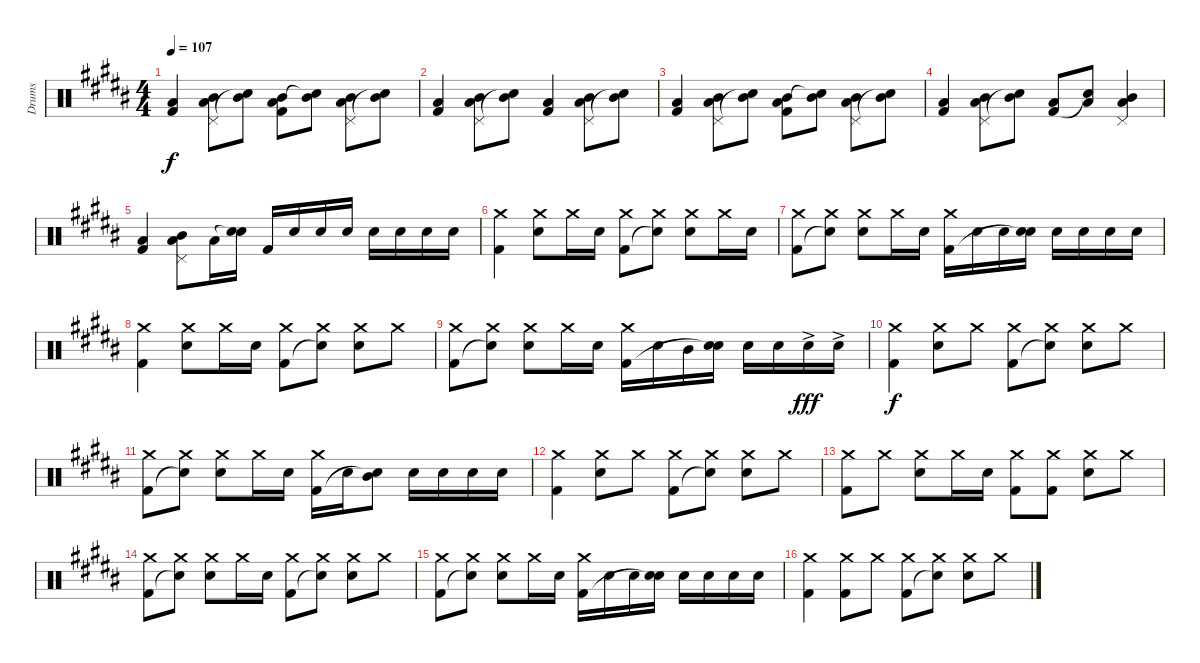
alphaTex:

\track ("Drums" "Drums") {instrument percussion}
\staff {score}
\articulation defaults
\ts (4 4)
\tempo 107
\clef neutral
\ks b
("Low Tom (hit)" "Kick (hit) 2").4{dy f} ("Pedal Hi-Hat (hit)" "Mid Tom (hit)" "Low Tom (hit)").8 ("Snare (hit)"{t} "Mid Tom (hit)").8 ("Mid Tom (hit)" "Low Tom (hit)" "Kick (hit) 2").8 ("Mid Tom (hit)" "Snare (hit)"{t}).8 ("Pedal Hi-Hat (hit)" "Mid Tom (hit)" "Low Tom (hit)").8 ("Snare (hit)"{t} "Mid Tom (hit)").8 |
("Low Tom (hit)" "Kick (hit) 2").4 ("Pedal Hi-Hat (hit)" "Mid Tom (hit)" "Low Tom (hit)").8 ("Snare (hit)"{t} "Mid Tom (hit)").8 ("Low Tom (hit)" "Kick (hit) 2").4 ("Pedal Hi-Hat (hit)" "Mid Tom (hit)" "Low Tom (hit)").8 ("Snare (hit)"{t} "Mid Tom (hit)").8 |
("Low Tom (hit)" "Kick (hit) 2").4 ("Pedal Hi-Hat (hit)" "Mid Tom (hit)" "Low Tom (hit)").8 ("Snare (hit)"{t} "Mid Tom (hit)").8 ("Mid Tom (hit)" "Low Tom (hit)" "Kick (hit) 2").8 ("Mid Tom (hit)" "Snare (hit)"{t}).8 ("Pedal Hi-Hat (hit)" "Mid Tom (hit)" "Low Tom (hit)").8 ("Snare (hit)"{t} "Mid Tom (hit)").8 |
("Low Tom (hit)" "Kick (hit) 2").4 ("Pedal Hi-Hat (hit)" "Mid Tom (hit)" "Low Tom (hit)").8 ("Snare (hit)"{t} "Mid Tom (hit)").8 ("Low Tom (hit)" "Kick (hit) 2").8 ("Low Tom (hit)" "Snare (hit)"{t}).8 ("Pedal Hi-Hat (hit)" "Mid Tom (hit)" "Low Tom (hit)").4 |
("Low Tom (hit)" "Kick (hit) 2").4 ("Pedal Hi-Hat (hit)" "Mid Tom (hit)" "Low Tom (hit)").8 "Low Tom (hit)".16 ("Snare (hit)"{t} "Snare (hit) 2").16 "Kick (hit) 2".16 "Snare (hit) 2".16 "Snare (hit) 2".16 "Snare (hit) 2".16 "Electric Snare (hit)".16 "Snare (hit) 2".16 "Snare (hit) 2".16 "Snare (hit) 2".16 |
("Crash medium (hit)" "Kick (hit) 2").4 ("Crash medium (hit)" "Snare (hit) 2").8 "Crash medium (hit)".16 "Snare (hit) 2".16 ("Crash medium (hit)" "Kick (hit) 2").8 ("Crash medium (hit)" "Snare (hit)"{t}).8 ("Crash medium (hit)" "Snare (hit) 2").8 "Crash medium (hit)".16 "Snare (hit) 2".16 |
("Crash medium (hit)" "Kick (hit) 2").8 ("Crash medium (hit)" "Snare (hit)"{t}).8 ("Crash medium (hit)" "Snare (hit) 2").8 "Crash medium (hit)".16 "Snare (hit) 2".16 ("Crash medium (hit)" "Kick (hit) 2").16 "Snare (hit) 2".16 "Electric Snare (hit)".16 ("Snare (hit) 2" "Snare (hit)"{t}).16 "Electric Snare (hit)".16 "Snare (hit) 2".16 "Snare (hit) 2".16 "Snare (hit) 2".16 |
("Crash medium (hit)" "Kick (hit) 2").4 ("Crash medium (hit)" "Snare (hit) 2").8 "Crash medium (hit)".16 "Snare (hit) 2".16 ("Crash medium (hit)" "Kick (hit) 2").8 ("Crash medium (hit)" "Snare (hit)"{t}).8 ("Crash medium (hit)" "Snare (hit) 2").8 "Crash medium (hit)".8 |
("Crash medium (hit)" "Kick (hit) 2").8 ("Crash medium (hit)" "Snare (hit)"{t}).8 ("Crash medium (hit)" "Snare (hit) 2").8 "Crash medium (hit)".16 "Snare (hit) 2".16 ("Crash medium (hit)" "Kick (hit) 2").16 "Snare (hit) 2".16 "Mid Tom (hit)".16 ("Snare (hit) 2" "Snare (hit)"{t}).16 "Snare (hit) 2".16 "Snare (hit) 2".16 "Snare (hit) 2"{ac}.16{dy fff} "Snare (hit) 2"{ac}.16 |
("Crash medium (hit)" "Kick (hit) 2").4{dy f} ("Crash medium (hit)" "Snare (hit) 2").8 "Crash medium (hit)".8 ("Crash medium (hit)" "Kick (hit) 2").8 ("Crash medium (hit)" "Snare (hit)"{t}).8 ("Crash medium (hit)" "Snare (hit) 2").8 "Crash medium (hit)".8 |
("Crash medium (hit)" "Kick (hit) 2").8 ("Crash medium (hit)" "Snare (hit)"{t}).8 ("Crash medium (hit)" "Snare (hit) 2").8 "Crash medium (hit)".16 "Snare (hit) 2".16 ("Crash medium (hit)" "Kick (hit) 2").16 "Snare (hit) 2".16 ("Mid Tom (hit)" "Snare (hit)"{t}).8 "Snare (hit) 2".16 "Snare (hit) 2".16 "Snare (hit) 2".16 "Snare (hit) 2".16 |
("Crash medium (hit)" "Kick (hit) 2").4 ("Crash medium (hit)" "Snare (hit) 2").8 "Crash medium (hit)".8 ("Crash medium (hit)" "Kick (hit) 2").8 ("Crash medium (hit)" "Snare (hit)"{t}).8 ("Crash medium (hit)" "Snare (hit) 2").8 "Crash medium (hit)".8 |
("Crash medium (hit)" "Kick (hit) 2").8 "Crash medium (hit)".8 ("Crash medium (hit)" "Snare (hit) 2").8 "Crash medium (hit)".16 "Snare (hit) 2".16 ("Crash medium (hit)" "Kick (hit) 2").8 ("Crash medium (hit)" "Kick (hit) 2").8 ("Crash medium (hit)" "Snare (hit) 2").8 "Crash medium (hit)".8 |
("Crash medium (hit)" "Kick (hit) 2").8 ("Crash medium (hit)" "Snare (hit)"{t}).8 ("Crash medium (hit)" "Snare (hit) 2").8 "Crash medium (hit)".16 "Snare (hit) 2".16 ("Crash medium (hit)" "Kick (hit) 2").8 ("Crash medium (hit)" "Snare (hit)"{t}).8 ("Crash medium (hit)" "Snare (hit) 2").8 "Crash medium (hit)".8 |
("Crash medium (hit)" "Kick (hit) 2").8 ("Crash medium (hit)" "Snare (hit)"{t}).8 ("Crash medium (hit)" "Snare (hit) 2").8 "Crash medium (hit)".16 "Snare (hit) 2".16 ("Crash medium (hit)" "Kick (hit) 2").16 "Snare (hit) 2".16 "Electric Snare (hit)".16 ("Snare (hit) 2" "Snare (hit)"{t}).16 "Snare (hit) 2".16 "Snare (hit) 2".16 "Snare (hit) 2".16 "Snare (hit) 2".16 |
("Crash medium (hit)" "Kick (hit) 2").4 ("Crash medium (hit)" "Kick (hit) 2").8 "Crash medium (hit)".8 ("Crash medium (hit)" "Kick (hit) 2").8 ("Crash medium (hit)" "Snare (hit)"{t}).8 ("Crash medium (hit)" "Snare (hit) 2").8 "Crash medium (hit)".8
